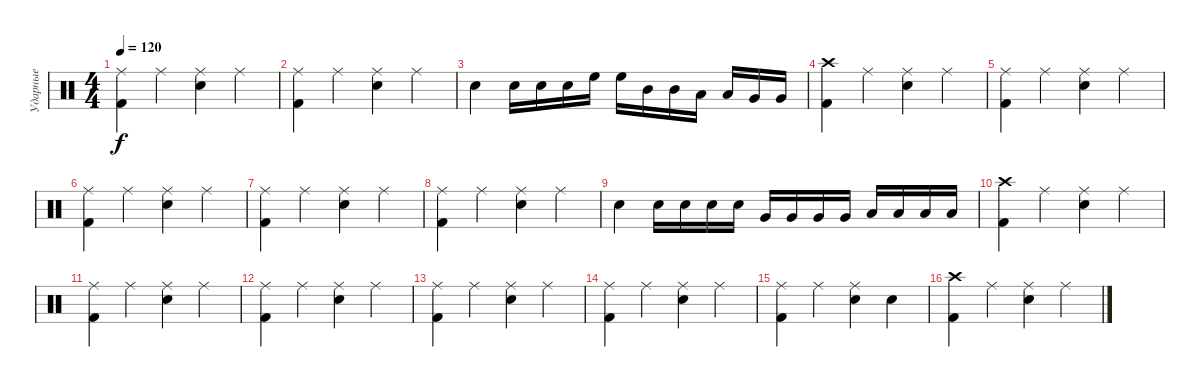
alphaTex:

\track ("Ударные" "Ударные") {instrument percussion}
\staff {score}
\articulation defaults
\ts (4 4)
\tempo 120
\clef neutral
\ks c
("Kick (hit) 2" "Ride (middle)").4{dy f} "Ride (middle)".4 ("Snare (hit) 2" "Ride (middle)").4 "Ride (middle)".4 |
("Kick (hit) 2" "Ride (middle)").4 "Ride (middle)".4 ("Snare (hit) 2" "Ride (middle)").4 "Ride (middle)".4 |
"Snare (hit) 2".4 "Snare (hit) 2".16 "Snare (hit) 2".16 "Snare (hit) 2".16 "High Floor Tom (hit)".16 "High Floor Tom (hit)".16 "Mid Tom (hit)".16 "Mid Tom (hit)".16 "Low Tom (hit)".16 "Low Tom (hit)".16 "Very Low Tom (hit)".16 "Very Low Tom (hit)".16 |
("Kick (hit) 2" "Crash high (hit)").4 "Ride (middle)".4 ("Snare (hit) 2" "Ride (middle)").4 "Ride (middle)".4 |
("Kick (hit) 2" "Ride (middle)").4 "Ride (middle)".4 ("Snare (hit) 2" "Ride (middle)").4 "Ride (middle)".4 |
("Kick (hit) 2" "Ride (middle)").4 "Ride (middle)".4 ("Snare (hit) 2" "Ride (middle)").4 "Ride (middle)".4 |
("Kick (hit) 2" "Ride (middle)").4 "Ride (middle)".4 ("Snare (hit) 2" "Ride (middle)").4 "Ride (middle)".4 |
("Kick (hit) 2" "Ride (middle)").4 "Ride (middle)".4 ("Snare (hit) 2" "Ride (middle)").4 "Ride (middle)".4 |
"Snare (hit) 2".4 "Snare (hit) 2".16 "Snare (hit) 2".16 "Snare (hit) 2".16 "Snare (hit) 2".16 "Very Low Tom (hit)".16 "Very Low Tom (hit)".16 "Very Low Tom (hit)".16 "Very Low Tom (hit)".16 "Low Floor Tom (hit)".16 "Low Floor Tom (hit)".16 "Low Floor Tom (hit)".16 "Low Floor Tom (hit)".16 |
("Kick (hit) 2" "Crash high (hit)").4 "Ride (middle)".4 ("Snare (hit) 2" "Ride (middle)").4 "Ride (middle)".4 |
("Kick (hit) 2" "Ride (middle)").4 "Ride (middle)".4 ("Snare (hit) 2" "Ride (middle)").4 "Ride (middle)".4 |
("Kick (hit) 2" "Ride (middle)").4 "Ride (middle)".4 ("Snare (hit) 2" "Ride (middle)").4 "Ride (middle)".4 |
("Kick (hit) 2" "Ride (middle)").4 "Ride (middle)".4 ("Snare (hit) 2" "Ride (middle)").4 "Ride (middle)".4 |
("Kick (hit) 2" "Ride (middle)").4 "Ride (middle)".4 ("Snare (hit) 2" "Ride (middle)").4 "Ride (middle)".4 |
("Kick (hit) 2" "Ride (middle)").4 "Ride (middle)".4 ("Snare (hit) 2" "Ride (middle)").4 "Snare (hit) 2".4 |
("Kick (hit) 2" "Crash high (hit)").4 "Ride (middle)".4 ("Snare (hit) 2" "Ride (middle)").4 "Ride (middle)".4
